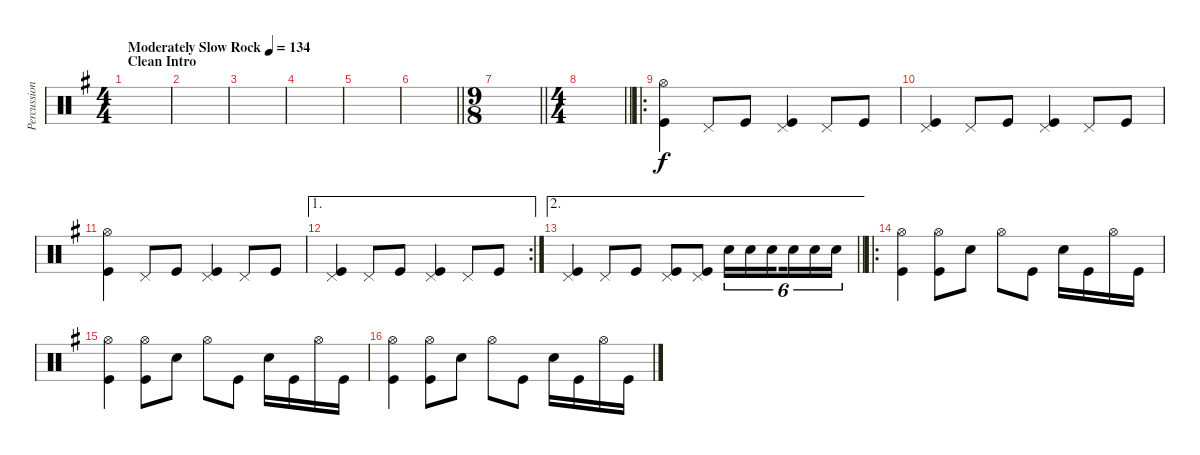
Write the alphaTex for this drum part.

\track ("Percussion" "Percussion") {instrument percussion}
\staff {score}
\articulation defaults
\ts (4 4)
\section ("" "Clean Intro")
\tempo (134 "Moderately Slow Rock")
\clef neutral
\ks g
|
|
|
|
|
\barLineRight lightlight
|
\ts (9 8)
\barLineRight lightlight
|
\ts (4 4)
\barLineRight lightlight
|
\ro
("Hi-Hat (open)" "Kick (hit)").4 "Pedal Hi-Hat (hit)".8 "Kick (hit)".8 ("Pedal Hi-Hat (hit)" "Kick (hit)").4 "Pedal Hi-Hat (hit)".8 "Kick (hit)".8 |
("Pedal Hi-Hat (hit)" "Kick (hit)").4 "Pedal Hi-Hat (hit)".8 "Kick (hit)".8 ("Pedal Hi-Hat (hit)" "Kick (hit)").4 "Pedal Hi-Hat (hit)".8 "Kick (hit)".8 |
("Hi-Hat (open)" "Kick (hit)").4 "Pedal Hi-Hat (hit)".8 "Kick (hit)".8 ("Pedal Hi-Hat (hit)" "Kick (hit)").4 "Pedal Hi-Hat (hit)".8 "Kick (hit)".8 |
\ae 1
\rc 2
("Pedal Hi-Hat (hit)" "Kick (hit)").4 "Pedal Hi-Hat (hit)".8 "Kick (hit)".8 ("Pedal Hi-Hat (hit)" "Kick (hit)").4 "Pedal Hi-Hat (hit)".8 "Kick (hit)".8 |
\ae 2
\barLineRight lightlight
("Pedal Hi-Hat (hit)" "Kick (hit)").4 "Pedal Hi-Hat (hit)".8 "Kick (hit)".8 ("Pedal Hi-Hat (hit)" "Kick (hit)").8 ("Pedal Hi-Hat (hit)" "Kick (hit)").8 "Snare (hit) 2".16{tu (6 4)} "Snare (hit) 2".16{tu (6 4)} "Snare (hit) 2".16{tu (6 4) beam splitsecondary} "Snare (hit) 2".16{tu (6 4)} "Snare (hit) 2".16{tu (6 4)} "Snare (hit) 2".16{tu (6 4)} |
\ro
("Hi-Hat (open)" "Kick (hit)").4 ("Hi-Hat (open)" "Kick (hit)").8 "Snare (hit) 2".8 "Hi-Hat (open)".8 "Kick (hit)".8 "Snare (hit) 2".16 "Kick (hit)".16 "Hi-Hat (open)".16 "Kick (hit)".16 |
("Hi-Hat (open)" "Kick (hit)").4 ("Hi-Hat (open)" "Kick (hit)").8 "Snare (hit) 2".8 "Hi-Hat (open)".8 "Kick (hit)".8 "Snare (hit) 2".16 "Kick (hit)".16 "Hi-Hat (open)".16 "Kick (hit)".16 |
("Hi-Hat (open)" "Kick (hit)").4 ("Hi-Hat (open)" "Kick (hit)").8 "Snare (hit) 2".8 "Hi-Hat (open)".8 "Kick (hit)".8 "Snare (hit) 2".16 "Kick (hit)".16 "Hi-Hat (open)".16 "Kick (hit)".16
